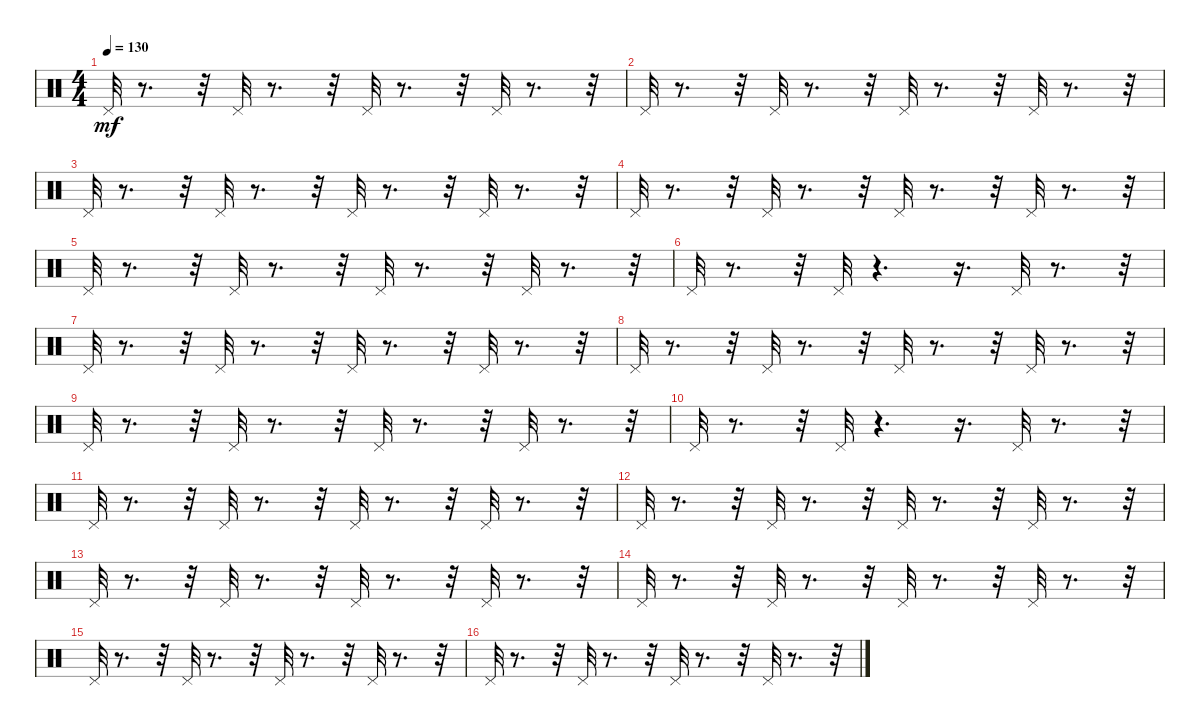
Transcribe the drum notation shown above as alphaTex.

\track "" {instrument percussion}
\staff {score}
\articulation defaults
\ts (4 4)
\tempo 130
\clef neutral
\ks c "Pedal Hi-Hat (hit)".32{dy mf}
r.8{d} r.32 "Pedal Hi-Hat (hit)".32 r.8{d} r.32 "Pedal Hi-Hat (hit)".32 r.8{d} r.32 "Pedal Hi-Hat (hit)".32 r.8{d} r.32 |
"Pedal Hi-Hat (hit)".32 r.8{d} r.32 "Pedal Hi-Hat (hit)".32 r.8{d} r.32 "Pedal Hi-Hat (hit)".32 r.8{d} r.32 "Pedal Hi-Hat (hit)".32 r.8{d} r.32 |
"Pedal Hi-Hat (hit)".32 r.8{d} r.32 "Pedal Hi-Hat (hit)".32 r.8{d} r.32 "Pedal Hi-Hat (hit)".32 r.8{d} r.32 "Pedal Hi-Hat (hit)".32 r.8{d} r.32 |
"Pedal Hi-Hat (hit)".32 r.8{d} r.32 "Pedal Hi-Hat (hit)".32 r.8{d} r.32 "Pedal Hi-Hat (hit)".32 r.8{d} r.32 "Pedal Hi-Hat (hit)".32 r.8{d} r.32 |
"Pedal Hi-Hat (hit)".32 r.8{d} r.32 "Pedal Hi-Hat (hit)".32 r.8{d} r.32 "Pedal Hi-Hat (hit)".32 r.8{d} r.32 "Pedal Hi-Hat (hit)".32 r.8{d} r.32 |
"Pedal Hi-Hat (hit)".32 r.8{d} r.32 "Pedal Hi-Hat (hit)".32 r.4{d} r.16{d} "Pedal Hi-Hat (hit)".32 r.8{d} r.32 |
"Pedal Hi-Hat (hit)".32 r.8{d} r.32 "Pedal Hi-Hat (hit)".32 r.8{d} r.32 "Pedal Hi-Hat (hit)".32 r.8{d} r.32 "Pedal Hi-Hat (hit)".32 r.8{d} r.32 |
"Pedal Hi-Hat (hit)".32 r.8{d} r.32 "Pedal Hi-Hat (hit)".32 r.8{d} r.32 "Pedal Hi-Hat (hit)".32 r.8{d} r.32 "Pedal Hi-Hat (hit)".32 r.8{d} r.32 |
"Pedal Hi-Hat (hit)".32 r.8{d} r.32 "Pedal Hi-Hat (hit)".32 r.8{d} r.32 "Pedal Hi-Hat (hit)".32 r.8{d} r.32 "Pedal Hi-Hat (hit)".32 r.8{d} r.32 |
"Pedal Hi-Hat (hit)".32 r.8{d} r.32 "Pedal Hi-Hat (hit)".32 r.4{d} r.16{d} "Pedal Hi-Hat (hit)".32 r.8{d} r.32 |
"Pedal Hi-Hat (hit)".32 r.8{d} r.32 "Pedal Hi-Hat (hit)".32 r.8{d} r.32 "Pedal Hi-Hat (hit)".32 r.8{d} r.32 "Pedal Hi-Hat (hit)".32 r.8{d} r.32 |
"Pedal Hi-Hat (hit)".32 r.8{d} r.32 "Pedal Hi-Hat (hit)".32 r.8{d} r.32 "Pedal Hi-Hat (hit)".32 r.8{d} r.32 "Pedal Hi-Hat (hit)".32 r.8{d} r.32 |
"Pedal Hi-Hat (hit)".32 r.8{d} r.32 "Pedal Hi-Hat (hit)".32 r.8{d} r.32 "Pedal Hi-Hat (hit)".32 r.8{d} r.32 "Pedal Hi-Hat (hit)".32 r.8{d} r.32 |
"Pedal Hi-Hat (hit)".32 r.8{d} r.32 "Pedal Hi-Hat (hit)".32 r.8{d} r.32 "Pedal Hi-Hat (hit)".32 r.8{d} r.32 "Pedal Hi-Hat (hit)".32 r.8{d} r.32 |
"Pedal Hi-Hat (hit)".32 r.8{d} r.32 "Pedal Hi-Hat (hit)".32 r.8{d} r.32 "Pedal Hi-Hat (hit)".32 r.8{d} r.32 "Pedal Hi-Hat (hit)".32 r.8{d} r.32 |
"Pedal Hi-Hat (hit)".32 r.8{d} r.32 "Pedal Hi-Hat (hit)".32 r.8{d} r.32 "Pedal Hi-Hat (hit)".32 r.8{d} r.32 "Pedal Hi-Hat (hit)".32 r.8{d} r.32
